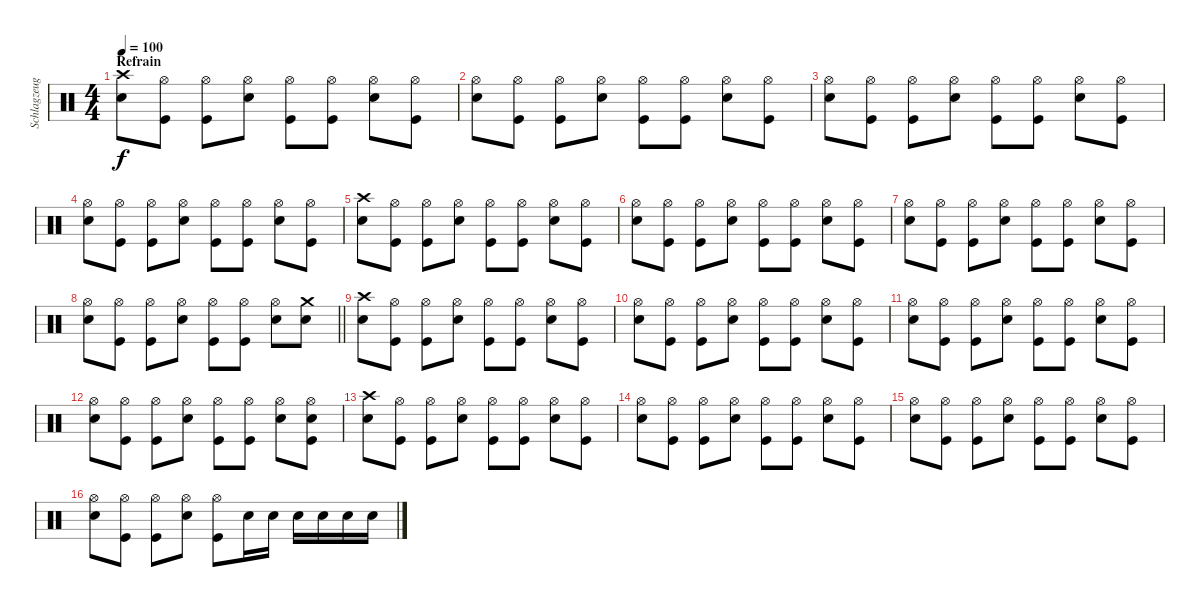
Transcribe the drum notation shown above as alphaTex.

\track ("Schlagzeug" "Schlagzeug") {instrument percussion}
\staff {score}
\articulation defaults
\ts (4 4)
\section ("" "Refrain")
\tempo 100
\clef neutral
\ks c
("Crash high (hit)" "Snare (hit) 2").8{dy f} ("Hi-Hat (open)" "Kick (hit)").8 ("Hi-Hat (open)" "Kick (hit)").8 ("Hi-Hat (open)" "Snare (hit) 2").8 ("Hi-Hat (open)" "Kick (hit)").8 ("Hi-Hat (open)" "Kick (hit)").8 ("Hi-Hat (open)" "Snare (hit) 2").8 ("Hi-Hat (open)" "Kick (hit)").8 |
("Hi-Hat (open)" "Snare (hit) 2").8 ("Hi-Hat (open)" "Kick (hit)").8 ("Hi-Hat (open)" "Kick (hit)").8 ("Hi-Hat (open)" "Snare (hit) 2").8 ("Hi-Hat (open)" "Kick (hit)").8 ("Hi-Hat (open)" "Kick (hit)").8 ("Hi-Hat (open)" "Snare (hit) 2").8 ("Hi-Hat (open)" "Kick (hit)").8 |
("Hi-Hat (open)" "Snare (hit) 2").8 ("Hi-Hat (open)" "Kick (hit)").8 ("Hi-Hat (open)" "Kick (hit)").8 ("Hi-Hat (open)" "Snare (hit) 2").8 ("Hi-Hat (open)" "Kick (hit)").8 ("Hi-Hat (open)" "Kick (hit)").8 ("Hi-Hat (open)" "Snare (hit) 2").8 ("Hi-Hat (open)" "Kick (hit)").8 |
("Hi-Hat (open)" "Snare (hit) 2").8 ("Hi-Hat (open)" "Kick (hit)").8 ("Hi-Hat (open)" "Kick (hit)").8 ("Hi-Hat (open)" "Snare (hit) 2").8 ("Hi-Hat (open)" "Kick (hit)").8 ("Hi-Hat (open)" "Kick (hit)").8 ("Hi-Hat (open)" "Snare (hit) 2").8 ("Hi-Hat (open)" "Kick (hit)").8 |
("Crash high (hit)" "Snare (hit) 2").8 ("Hi-Hat (open)" "Kick (hit)").8 ("Hi-Hat (open)" "Kick (hit)").8 ("Hi-Hat (open)" "Snare (hit) 2").8 ("Hi-Hat (open)" "Kick (hit)").8 ("Hi-Hat (open)" "Kick (hit)").8 ("Hi-Hat (open)" "Snare (hit) 2").8 ("Hi-Hat (open)" "Kick (hit)").8 |
("Hi-Hat (open)" "Snare (hit) 2").8 ("Hi-Hat (open)" "Kick (hit)").8 ("Hi-Hat (open)" "Kick (hit)").8 ("Hi-Hat (open)" "Snare (hit) 2").8 ("Hi-Hat (open)" "Kick (hit)").8 ("Hi-Hat (open)" "Kick (hit)").8 ("Hi-Hat (open)" "Snare (hit) 2").8 ("Hi-Hat (open)" "Kick (hit)").8 |
("Hi-Hat (open)" "Snare (hit) 2").8 ("Hi-Hat (open)" "Kick (hit)").8 ("Hi-Hat (open)" "Kick (hit)").8 ("Hi-Hat (open)" "Snare (hit) 2").8 ("Hi-Hat (open)" "Kick (hit)").8 ("Hi-Hat (open)" "Kick (hit)").8 ("Hi-Hat (open)" "Snare (hit) 2").8 ("Hi-Hat (open)" "Kick (hit)").8 |
\barLineRight lightlight
("Hi-Hat (open)" "Snare (hit) 2").8 ("Hi-Hat (open)" "Kick (hit)").8 ("Hi-Hat (open)" "Kick (hit)").8 ("Hi-Hat (open)" "Snare (hit) 2").8 ("Hi-Hat (open)" "Kick (hit)").8 ("Hi-Hat (open)" "Kick (hit)").8 ("Hi-Hat (open)" "Snare (hit) 2").8 ("Crash medium (hit)" "Snare (hit) 2").8 |
("Crash high (hit)" "Snare (hit) 2").8 ("Hi-Hat (open)" "Kick (hit)").8 ("Hi-Hat (open)" "Kick (hit)").8 ("Hi-Hat (open)" "Snare (hit) 2").8 ("Hi-Hat (open)" "Kick (hit)").8 ("Hi-Hat (open)" "Kick (hit)").8 ("Hi-Hat (open)" "Snare (hit) 2").8 ("Hi-Hat (open)" "Kick (hit)").8 |
("Hi-Hat (open)" "Snare (hit) 2").8 ("Hi-Hat (open)" "Kick (hit)").8 ("Hi-Hat (open)" "Kick (hit)").8 ("Hi-Hat (open)" "Snare (hit) 2").8 ("Hi-Hat (open)" "Kick (hit)").8 ("Hi-Hat (open)" "Kick (hit)").8 ("Hi-Hat (open)" "Snare (hit) 2").8 ("Hi-Hat (open)" "Kick (hit)").8 |
("Hi-Hat (open)" "Snare (hit) 2").8 ("Hi-Hat (open)" "Kick (hit)").8 ("Hi-Hat (open)" "Kick (hit)").8 ("Hi-Hat (open)" "Snare (hit) 2").8 ("Hi-Hat (open)" "Kick (hit)").8 ("Hi-Hat (open)" "Kick (hit)").8 ("Hi-Hat (open)" "Snare (hit) 2").8 ("Hi-Hat (open)" "Kick (hit)").8 |
("Hi-Hat (open)" "Snare (hit) 2").8 ("Hi-Hat (open)" "Kick (hit)").8 ("Hi-Hat (open)" "Kick (hit)").8 ("Hi-Hat (open)" "Snare (hit) 2").8 ("Hi-Hat (open)" "Kick (hit)").8 ("Hi-Hat (open)" "Kick (hit)").8 ("Hi-Hat (open)" "Snare (hit) 2").8 ("Hi-Hat (open)" "Snare (hit) 2" "Kick (hit)").8 |
("Crash high (hit)" "Snare (hit) 2").8 ("Hi-Hat (open)" "Kick (hit)").8 ("Hi-Hat (open)" "Kick (hit)").8 ("Hi-Hat (open)" "Snare (hit) 2").8 ("Hi-Hat (open)" "Kick (hit)").8 ("Hi-Hat (open)" "Kick (hit)").8 ("Hi-Hat (open)" "Snare (hit) 2").8 ("Hi-Hat (open)" "Kick (hit)").8 |
("Hi-Hat (open)" "Snare (hit) 2").8 ("Hi-Hat (open)" "Kick (hit)").8 ("Hi-Hat (open)" "Kick (hit)").8 ("Hi-Hat (open)" "Snare (hit) 2").8 ("Hi-Hat (open)" "Kick (hit)").8 ("Hi-Hat (open)" "Kick (hit)").8 ("Hi-Hat (open)" "Snare (hit) 2").8 ("Hi-Hat (open)" "Kick (hit)").8 |
("Hi-Hat (open)" "Snare (hit) 2").8 ("Hi-Hat (open)" "Kick (hit)").8 ("Hi-Hat (open)" "Kick (hit)").8 ("Hi-Hat (open)" "Snare (hit) 2").8 ("Hi-Hat (open)" "Kick (hit)").8 ("Hi-Hat (open)" "Kick (hit)").8 ("Hi-Hat (open)" "Snare (hit) 2").8 ("Hi-Hat (open)" "Kick (hit)").8 |
("Hi-Hat (open)" "Snare (hit) 2").8 ("Hi-Hat (open)" "Kick (hit)").8 ("Hi-Hat (open)" "Kick (hit)").8 ("Hi-Hat (open)" "Snare (hit) 2").8 ("Hi-Hat (open)" "Kick (hit)").8 "Snare (hit) 2".16 "Snare (hit) 2".16 "Snare (hit) 2".16 "Snare (hit) 2".16 "Snare (hit) 2".16 "Snare (hit) 2".16
